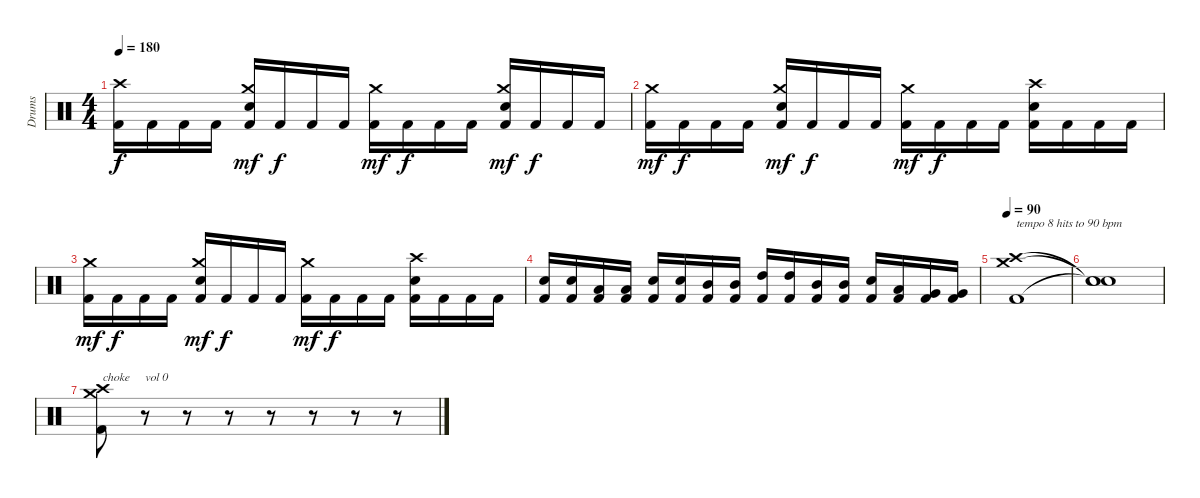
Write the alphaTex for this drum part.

\track ("Drums" "Drums") {instrument percussion}
\staff {score}
\articulation defaults
\ts (4 4)
\tempo 180
\clef neutral
\ks c
("Crash high (hit)" "Kick (hit) 2").16{dy f} "Kick (hit) 2".16 "Kick (hit) 2".16 "Kick (hit) 2".16 ("Crash medium (hit)" "Snare (hit) 2" "Kick (hit) 2").16{dy mf} "Kick (hit) 2".16{dy f} "Kick (hit) 2".16 "Kick (hit) 2".16 ("Crash medium (hit)" "Kick (hit) 2").16{dy mf} "Kick (hit) 2".16{dy f} "Kick (hit) 2".16 "Kick (hit) 2".16 ("Crash medium (hit)" "Snare (hit) 2" "Kick (hit) 2").16{dy mf} "Kick (hit) 2".16{dy f} "Kick (hit) 2".16 "Kick (hit) 2".16 |
("Crash medium (hit)" "Kick (hit) 2").16{dy mf} "Kick (hit) 2".16{dy f} "Kick (hit) 2".16 "Kick (hit) 2".16 ("Crash medium (hit)" "Snare (hit) 2" "Kick (hit) 2").16{dy mf} "Kick (hit) 2".16{dy f} "Kick (hit) 2".16 "Kick (hit) 2".16 ("Crash medium (hit)" "Kick (hit) 2").16{dy mf} "Kick (hit) 2".16{dy f} "Kick (hit) 2".16 "Kick (hit) 2".16 ("Crash high (hit)" "Snare (hit) 2" "Kick (hit) 2").16 "Kick (hit) 2".16 "Kick (hit) 2".16 "Kick (hit) 2".16 |
("Crash medium (hit)" "Kick (hit) 2").16{dy mf} "Kick (hit) 2".16{dy f} "Kick (hit) 2".16 "Kick (hit) 2".16 ("Crash medium (hit)" "Snare (hit) 2" "Kick (hit) 2").16{dy mf} "Kick (hit) 2".16{dy f} "Kick (hit) 2".16 "Kick (hit) 2".16 ("Crash medium (hit)" "Kick (hit) 2").16{dy mf} "Kick (hit) 2".16{dy f} "Kick (hit) 2".16 "Kick (hit) 2".16 ("Crash high (hit)" "Snare (hit) 2" "Kick (hit) 2").16 "Kick (hit) 2".16 "Kick (hit) 2".16 "Kick (hit) 2".16 |
("Snare (hit) 2" "Kick (hit) 2").16 ("Snare (hit) 2" "Kick (hit) 2").16 ("Low Tom (hit)" "Kick (hit) 2").16 ("Low Tom (hit)" "Kick (hit) 2").16 ("Snare (hit) 2" "Kick (hit) 2").16 ("Snare (hit) 2" "Kick (hit) 2").16 ("Mid Tom (hit)" "Kick (hit) 2").16 ("Mid Tom (hit)" "Kick (hit) 2").16 ("High Tom (hit)" "Kick (hit) 2").16 ("High Tom (hit)" "Kick (hit) 2").16 ("Mid Tom (hit)" "Kick (hit) 2").16 ("Mid Tom (hit)" "Kick (hit) 2").16 ("Snare (hit) 2" "Kick (hit) 2").16 ("Low Tom (hit)" "Kick (hit) 2").16 ("Very Low Tom (hit)" "Kick (hit) 2").16 ("Very Low Tom (hit)" "Kick (hit) 2").16 |
\tempo 90
("Crash high (hit)" "Crash medium (hit)" "Kick (hit) 2").1{txt "tempo 8 hits to 90 bpm"} |
("Snare (hit)"{t} "Snare (hit)"{t} "Snare (hit)"{t}).1 |
("Crash high (hit)" "Crash medium (hit)" "Kick (hit) 2").8{txt "choke"} r.8{txt "vol 0" volume 0} r.8 r.8 r.8 r.8 r.8 r.8
